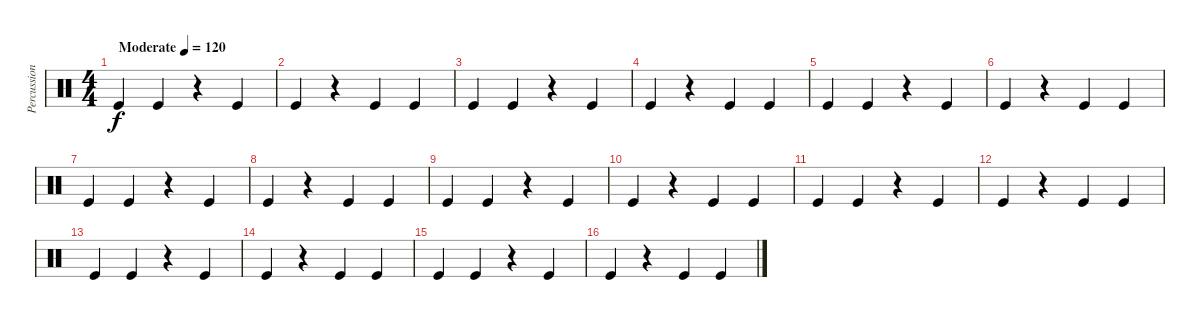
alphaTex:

\track ("Percussioni" "Percussion") {instrument percussion}
\staff {score}
\articulation defaults
\ts (4 4)
\tempo (120 "Moderate")
\clef neutral
\ks c "Kick (hit)".4{dy f} "Kick (hit)".4
r.4 "Kick (hit)".4 |
"Kick (hit)".4 r.4 "Kick (hit)".4 "Kick (hit)".4 |
"Kick (hit)".4 "Kick (hit)".4 r.4 "Kick (hit)".4 |
"Kick (hit)".4 r.4 "Kick (hit)".4 "Kick (hit)".4 |
"Kick (hit)".4 "Kick (hit)".4 r.4 "Kick (hit)".4 |
"Kick (hit)".4 r.4 "Kick (hit)".4 "Kick (hit)".4 |
"Kick (hit)".4 "Kick (hit)".4 r.4 "Kick (hit)".4 |
"Kick (hit)".4 r.4 "Kick (hit)".4 "Kick (hit)".4 |
"Kick (hit)".4 "Kick (hit)".4 r.4 "Kick (hit)".4 |
"Kick (hit)".4 r.4 "Kick (hit)".4 "Kick (hit)".4 |
"Kick (hit)".4 "Kick (hit)".4 r.4 "Kick (hit)".4 |
"Kick (hit)".4 r.4 "Kick (hit)".4 "Kick (hit)".4 |
"Kick (hit)".4 "Kick (hit)".4 r.4 "Kick (hit)".4 |
"Kick (hit)".4 r.4 "Kick (hit)".4 "Kick (hit)".4 |
"Kick (hit)".4 "Kick (hit)".4 r.4 "Kick (hit)".4 |
"Kick (hit)".4 r.4 "Kick (hit)".4 "Kick (hit)".4
